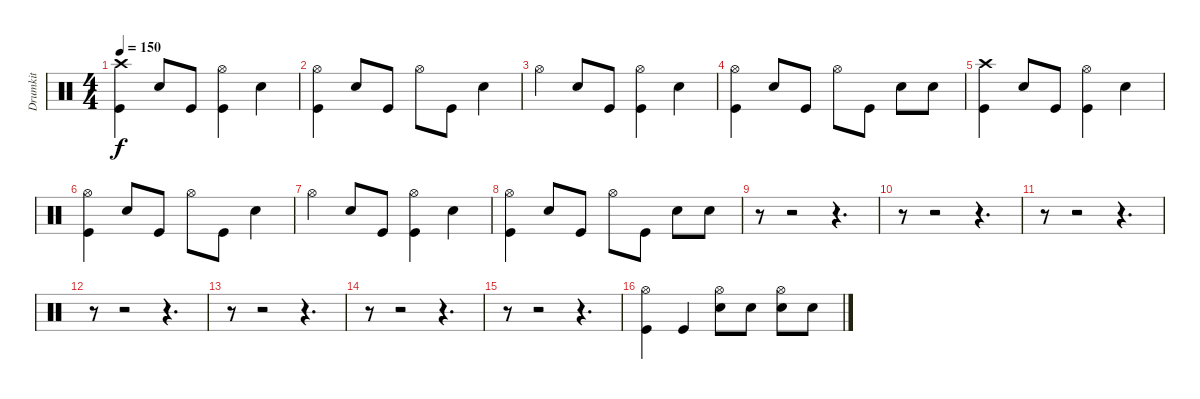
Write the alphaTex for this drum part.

\track ("Drumkit" "Drumkit") {instrument percussion}
\staff {score}
\articulation defaults
\ts (4 4)
\tempo 150
\clef neutral
\ks c
("Crash high (hit)" "Kick (hit)").4{dy f} "Snare (hit) 2".8 "Kick (hit)".8 ("Hi-Hat (open)" "Kick (hit)").4 "Snare (hit) 2".4 |
("Hi-Hat (open)" "Kick (hit)").4 "Snare (hit) 2".8 "Kick (hit)".8 "Hi-Hat (open)".8 "Kick (hit)".8 "Snare (hit) 2".4 |
"Hi-Hat (open)".4 "Snare (hit) 2".8 "Kick (hit)".8 ("Hi-Hat (open)" "Kick (hit)").4 "Snare (hit) 2".4 |
("Hi-Hat (open)" "Kick (hit)").4 "Snare (hit) 2".8 "Kick (hit)".8 "Hi-Hat (open)".8 "Kick (hit)".8 "Snare (hit) 2".8 "Snare (hit) 2".8 |
("Crash high (hit)" "Kick (hit)").4 "Snare (hit) 2".8 "Kick (hit)".8 ("Hi-Hat (open)" "Kick (hit)").4 "Snare (hit) 2".4 |
("Hi-Hat (open)" "Kick (hit)").4 "Snare (hit) 2".8 "Kick (hit)".8 "Hi-Hat (open)".8 "Kick (hit)".8 "Snare (hit) 2".4 |
"Hi-Hat (open)".4 "Snare (hit) 2".8 "Kick (hit)".8 ("Hi-Hat (open)" "Kick (hit)").4 "Snare (hit) 2".4 |
("Hi-Hat (open)" "Kick (hit)").4 "Snare (hit) 2".8 "Kick (hit)".8 "Hi-Hat (open)".8 "Kick (hit)".8 "Snare (hit) 2".8 "Snare (hit) 2".8 |
r.8 r.2 r.4{d} |
r.8 r.2 r.4{d} |
r.8 r.2 r.4{d} |
r.8 r.2 r.4{d} |
r.8 r.2 r.4{d} |
r.8 r.2 r.4{d} |
r.8 r.2 r.4{d} |
("Hi-Hat (open)" "Kick (hit)").4 "Kick (hit)".4 ("Hi-Hat (open)" "Snare (hit) 2").8 "Snare (hit) 2".8 ("Hi-Hat (open)" "Snare (hit) 2").8 "Snare (hit) 2".8
